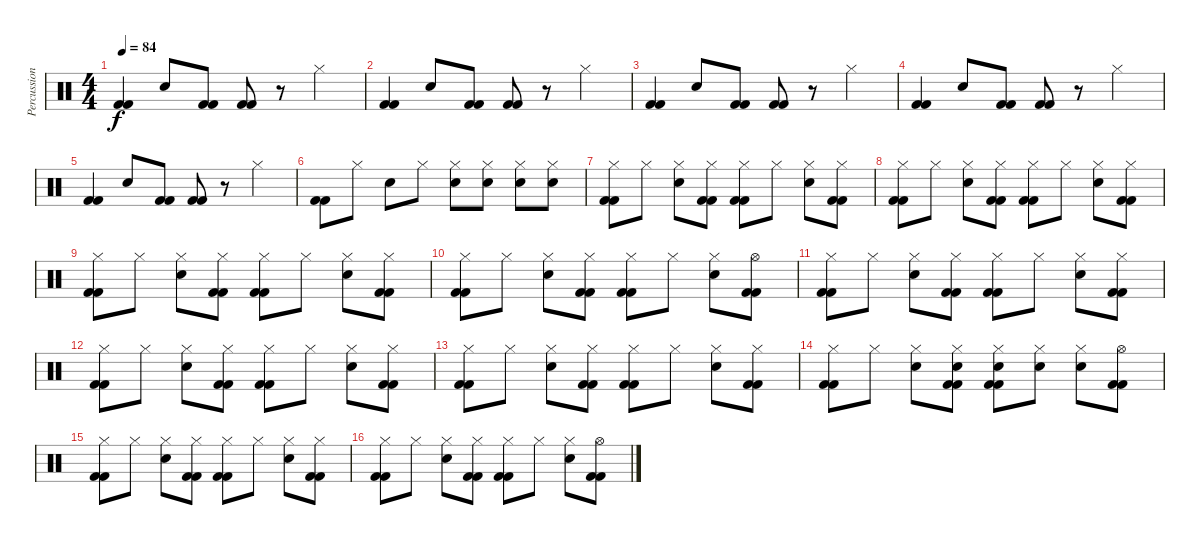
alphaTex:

\track ("Percussion" "Percussion") {instrument percussion}
\staff {score}
\articulation defaults
\ts (4 4)
\tempo 84
\clef neutral
\ks c
("Kick (hit) 2" "Kick (hit) 2").4{dy f} "Electric Snare (hit)".8 ("Kick (hit) 2" "Kick (hit) 2").8 ("Kick (hit) 2" "Kick (hit) 2").8 r.8 "Hi-Hat (closed)".4 |
("Kick (hit) 2" "Kick (hit) 2").4 "Electric Snare (hit)".8 ("Kick (hit) 2" "Kick (hit) 2").8 ("Kick (hit) 2" "Kick (hit) 2").8 r.8 "Hi-Hat (closed)".4 |
("Kick (hit) 2" "Kick (hit) 2").4 "Electric Snare (hit)".8 ("Kick (hit) 2" "Kick (hit) 2").8 ("Kick (hit) 2" "Kick (hit) 2").8 r.8 "Hi-Hat (closed)".4 |
("Kick (hit) 2" "Kick (hit) 2").4 "Electric Snare (hit)".8 ("Kick (hit) 2" "Kick (hit) 2").8 ("Kick (hit) 2" "Kick (hit) 2").8 r.8 "Hi-Hat (closed)".4 |
("Kick (hit) 2" "Kick (hit) 2").4 "Electric Snare (hit)".8 ("Kick (hit) 2" "Kick (hit) 2").8 ("Kick (hit) 2" "Kick (hit) 2").8 r.8 "Hi-Hat (closed)".4 |
("Kick (hit) 2" "Kick (hit) 2").8 "Hi-Hat (closed)".8 "Electric Snare (hit)".8 "Hi-Hat (closed)".8 ("Hi-Hat (closed)" "Electric Snare (hit)").8 ("Hi-Hat (closed)" "Electric Snare (hit)").8 ("Hi-Hat (closed)" "Electric Snare (hit)").8 ("Hi-Hat (closed)" "Electric Snare (hit)").8 |
("Hi-Hat (closed)" "Kick (hit) 2" "Kick (hit) 2").8 "Hi-Hat (closed)".8 ("Hi-Hat (closed)" "Electric Snare (hit)").8 ("Hi-Hat (closed)" "Kick (hit) 2" "Kick (hit) 2").8 ("Hi-Hat (closed)" "Kick (hit) 2" "Kick (hit) 2").8 "Hi-Hat (closed)".8 ("Hi-Hat (closed)" "Electric Snare (hit)").8 ("Hi-Hat (closed)" "Kick (hit) 2" "Kick (hit) 2").8 |
("Hi-Hat (closed)" "Kick (hit) 2" "Kick (hit) 2").8 "Hi-Hat (closed)".8 ("Hi-Hat (closed)" "Electric Snare (hit)").8 ("Hi-Hat (closed)" "Kick (hit) 2" "Kick (hit) 2").8 ("Hi-Hat (closed)" "Kick (hit) 2" "Kick (hit) 2").8 "Hi-Hat (closed)".8 ("Hi-Hat (closed)" "Electric Snare (hit)").8 ("Hi-Hat (closed)" "Kick (hit) 2" "Kick (hit) 2").8 |
("Hi-Hat (closed)" "Kick (hit) 2" "Kick (hit) 2").8 "Hi-Hat (closed)".8 ("Hi-Hat (closed)" "Electric Snare (hit)").8 ("Hi-Hat (closed)" "Kick (hit) 2" "Kick (hit) 2").8 ("Hi-Hat (closed)" "Kick (hit) 2" "Kick (hit) 2").8 "Hi-Hat (closed)".8 ("Hi-Hat (closed)" "Electric Snare (hit)").8 ("Hi-Hat (closed)" "Kick (hit) 2" "Kick (hit) 2").8 |
("Hi-Hat (closed)" "Kick (hit) 2" "Kick (hit) 2").8 "Hi-Hat (closed)".8 ("Hi-Hat (closed)" "Electric Snare (hit)").8 ("Hi-Hat (closed)" "Kick (hit) 2" "Kick (hit) 2").8 ("Hi-Hat (closed)" "Kick (hit) 2" "Kick (hit) 2").8 "Hi-Hat (closed)".8 ("Hi-Hat (closed)" "Electric Snare (hit)").8 ("Hi-Hat (open)" "Kick (hit) 2" "Kick (hit) 2").8 |
("Hi-Hat (closed)" "Kick (hit) 2" "Kick (hit) 2").8 "Hi-Hat (closed)".8 ("Hi-Hat (closed)" "Electric Snare (hit)").8 ("Hi-Hat (closed)" "Kick (hit) 2" "Kick (hit) 2").8 ("Hi-Hat (closed)" "Kick (hit) 2" "Kick (hit) 2").8 "Hi-Hat (closed)".8 ("Hi-Hat (closed)" "Electric Snare (hit)").8 ("Hi-Hat (closed)" "Kick (hit) 2" "Kick (hit) 2").8 |
("Hi-Hat (closed)" "Kick (hit) 2" "Kick (hit) 2").8 "Hi-Hat (closed)".8 ("Hi-Hat (closed)" "Electric Snare (hit)").8 ("Hi-Hat (closed)" "Kick (hit) 2" "Kick (hit) 2").8 ("Hi-Hat (closed)" "Kick (hit) 2" "Kick (hit) 2").8 "Hi-Hat (closed)".8 ("Hi-Hat (closed)" "Electric Snare (hit)").8 ("Hi-Hat (closed)" "Kick (hit) 2" "Kick (hit) 2").8 |
("Hi-Hat (closed)" "Kick (hit) 2" "Kick (hit) 2").8 "Hi-Hat (closed)".8 ("Hi-Hat (closed)" "Electric Snare (hit)").8 ("Hi-Hat (closed)" "Kick (hit) 2" "Kick (hit) 2").8 ("Hi-Hat (closed)" "Kick (hit) 2" "Kick (hit) 2").8 "Hi-Hat (closed)".8 ("Hi-Hat (closed)" "Electric Snare (hit)").8 ("Hi-Hat (closed)" "Kick (hit) 2" "Kick (hit) 2").8 |
("Hi-Hat (closed)" "Kick (hit) 2" "Kick (hit) 2").8 "Hi-Hat (closed)".8 ("Hi-Hat (closed)" "Electric Snare (hit)").8 ("Hi-Hat (closed)" "Electric Snare (hit)" "Kick (hit) 2" "Kick (hit) 2").8 ("Hi-Hat (closed)" "Electric Snare (hit)" "Kick (hit) 2" "Kick (hit) 2").8 ("Hi-Hat (closed)" "Electric Snare (hit)").8 ("Hi-Hat (closed)" "Electric Snare (hit)").8 ("Hi-Hat (open)" "Kick (hit) 2" "Kick (hit) 2").8 |
("Hi-Hat (closed)" "Kick (hit) 2" "Kick (hit) 2").8 "Hi-Hat (closed)".8 ("Hi-Hat (closed)" "Electric Snare (hit)").8 ("Hi-Hat (closed)" "Kick (hit) 2" "Kick (hit) 2").8 ("Hi-Hat (closed)" "Kick (hit) 2" "Kick (hit) 2").8 "Hi-Hat (closed)".8 ("Hi-Hat (closed)" "Electric Snare (hit)").8 ("Hi-Hat (closed)" "Kick (hit) 2" "Kick (hit) 2").8 |
("Hi-Hat (closed)" "Kick (hit) 2" "Kick (hit) 2").8 "Hi-Hat (closed)".8 ("Hi-Hat (closed)" "Electric Snare (hit)").8 ("Hi-Hat (closed)" "Kick (hit) 2" "Kick (hit) 2").8 ("Hi-Hat (closed)" "Kick (hit) 2" "Kick (hit) 2").8 "Hi-Hat (closed)".8 ("Hi-Hat (closed)" "Electric Snare (hit)").8 ("Hi-Hat (open)" "Kick (hit) 2" "Kick (hit) 2").8
